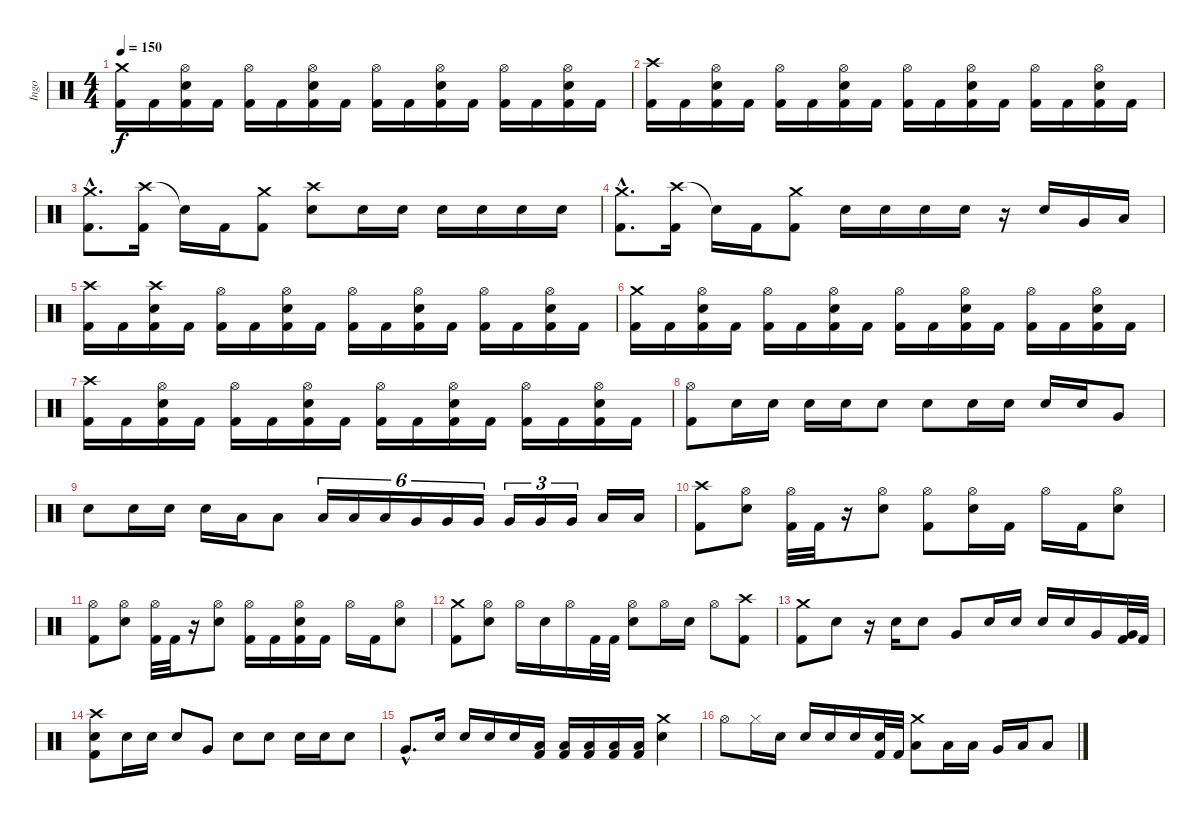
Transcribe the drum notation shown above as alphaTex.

\track ("Ingo" "Ingo") {instrument percussion}
\staff {score}
\articulation defaults
\ts (4 4)
\tempo 150
\clef neutral
\ks c
("Crash medium (hit)" "Kick (hit) 2").16{dy f} "Kick (hit) 2".16 ("Hi-Hat (open)" "Electric Snare (hit)" "Kick (hit) 2").16 "Kick (hit) 2".16 ("Hi-Hat (open)" "Kick (hit) 2").16 "Kick (hit) 2".16 ("Hi-Hat (open)" "Electric Snare (hit)" "Kick (hit) 2").16 "Kick (hit) 2".16 ("Hi-Hat (open)" "Kick (hit) 2").16 "Kick (hit) 2".16 ("Hi-Hat (open)" "Electric Snare (hit)" "Kick (hit) 2").16 "Kick (hit) 2".16 ("Hi-Hat (open)" "Kick (hit) 2").16 "Kick (hit) 2".16 ("Hi-Hat (open)" "Electric Snare (hit)" "Kick (hit) 2").16 "Kick (hit) 2".16 |
("Crash high (hit)" "Kick (hit) 2").16 "Kick (hit) 2".16 ("Hi-Hat (open)" "Electric Snare (hit)" "Kick (hit) 2").16 "Kick (hit) 2".16 ("Hi-Hat (open)" "Kick (hit) 2").16 "Kick (hit) 2".16 ("Hi-Hat (open)" "Electric Snare (hit)" "Kick (hit) 2").16 "Kick (hit) 2".16 ("Hi-Hat (open)" "Kick (hit) 2").16 "Kick (hit) 2".16 ("Hi-Hat (open)" "Electric Snare (hit)" "Kick (hit) 2").16 "Kick (hit) 2".16 ("Hi-Hat (open)" "Kick (hit) 2").16 "Kick (hit) 2".16 ("Hi-Hat (open)" "Electric Snare (hit)" "Kick (hit) 2").16 "Kick (hit) 2".16 |
("Crash medium (hit)"{hac} "Kick (hit) 2"{hac}).8{d} ("Crash high (hit)" "Kick (hit) 2").16 "Snare (hit)"{t}.16 "Kick (hit) 2".16 ("Crash medium (hit)" "Kick (hit) 2").8 ("Crash high (hit)" "Electric Snare (hit)").8 "Electric Snare (hit)".16 "Electric Snare (hit)".16 "Electric Snare (hit)".16 "Electric Snare (hit)".16 "Electric Snare (hit)".16 "Electric Snare (hit)".16 |
("Crash medium (hit)"{hac} "Kick (hit) 2"{hac}).8{d} ("Crash high (hit)" "Kick (hit) 2").16 "Snare (hit)"{t}.16 "Kick (hit) 2".16 ("Crash medium (hit)" "Kick (hit) 2").8 "Electric Snare (hit)".16 "Electric Snare (hit)".16 "Electric Snare (hit)".16 "Electric Snare (hit)".16 r.16 "Electric Snare (hit)".16 "Very Low Tom (hit)".16 "Low Floor Tom (hit)".16 |
("Crash high (hit)" "Kick (hit) 2").16 "Kick (hit) 2".16 ("Crash high (hit)" "Electric Snare (hit)" "Kick (hit) 2").16 "Kick (hit) 2".16 ("Hi-Hat (open)" "Kick (hit) 2").16 "Kick (hit) 2".16 ("Hi-Hat (open)" "Electric Snare (hit)" "Kick (hit) 2").16 "Kick (hit) 2".16 ("Hi-Hat (open)" "Kick (hit) 2").16 "Kick (hit) 2".16 ("Hi-Hat (open)" "Electric Snare (hit)" "Kick (hit) 2").16 "Kick (hit) 2".16 ("Hi-Hat (open)" "Kick (hit) 2").16 "Kick (hit) 2".16 ("Hi-Hat (open)" "Electric Snare (hit)" "Kick (hit) 2").16 "Kick (hit) 2".16 |
("Crash medium (hit)" "Kick (hit) 2").16 "Kick (hit) 2".16 ("Hi-Hat (open)" "Electric Snare (hit)" "Kick (hit) 2").16 "Kick (hit) 2".16 ("Hi-Hat (open)" "Kick (hit) 2").16 "Kick (hit) 2".16 ("Hi-Hat (open)" "Electric Snare (hit)" "Kick (hit) 2").16 "Kick (hit) 2".16 ("Hi-Hat (open)" "Kick (hit) 2").16 "Kick (hit) 2".16 ("Hi-Hat (open)" "Electric Snare (hit)" "Kick (hit) 2").16 "Kick (hit) 2".16 ("Hi-Hat (open)" "Kick (hit) 2").16 "Kick (hit) 2".16 ("Hi-Hat (open)" "Electric Snare (hit)" "Kick (hit) 2").16 "Kick (hit) 2".16 |
("Crash high (hit)" "Kick (hit) 2").16 "Kick (hit) 2".16 ("Hi-Hat (open)" "Electric Snare (hit)" "Kick (hit) 2").16 "Kick (hit) 2".16 ("Hi-Hat (open)" "Kick (hit) 2").16 "Kick (hit) 2".16 ("Hi-Hat (open)" "Electric Snare (hit)" "Kick (hit) 2").16 "Kick (hit) 2".16 ("Hi-Hat (open)" "Kick (hit) 2").16 "Kick (hit) 2".16 ("Hi-Hat (open)" "Electric Snare (hit)" "Kick (hit) 2").16 "Kick (hit) 2".16 ("Hi-Hat (open)" "Kick (hit) 2").16 "Kick (hit) 2".16 ("Hi-Hat (open)" "Electric Snare (hit)" "Kick (hit) 2").16 "Kick (hit) 2".16 |
("Hi-Hat (open)" "Kick (hit) 2").8 "Electric Snare (hit)".16 "Electric Snare (hit)".16 "Electric Snare (hit)".16 "Electric Snare (hit)".16 "Electric Snare (hit)".8 "Electric Snare (hit)".8 "Electric Snare (hit)".16 "Electric Snare (hit)".16 "Electric Snare (hit)".16 "Electric Snare (hit)".16 "Very Low Tom (hit)".8 |
"Electric Snare (hit)".8 "Electric Snare (hit)".16 "Electric Snare (hit)".16 "Electric Snare (hit)".16 "Low Tom (hit)".16 "Low Tom (hit)".8 "Low Tom (hit)".16{tu (6 4)} "Low Tom (hit)".16{tu (6 4)} "Low Tom (hit)".16{tu (6 4)} "Very Low Tom (hit)".16{tu (6 4)} "Very Low Tom (hit)".16{tu (6 4)} "Very Low Tom (hit)".16{tu (6 4)} "Very Low Tom (hit)".16{tu (3 2)} "Very Low Tom (hit)".16{tu (3 2)} "Very Low Tom (hit)".16{tu (3 2)} "Low Floor Tom (hit)".16 "Low Floor Tom (hit)".16 |
("Crash high (hit)" "Kick (hit) 2").8 ("Hi-Hat (open)" "Electric Snare (hit)").8 ("Hi-Hat (open)" "Kick (hit) 2").32 "Kick (hit) 2".32 r.16 ("Hi-Hat (open)" "Electric Snare (hit)").8 ("Hi-Hat (open)" "Kick (hit) 2").8 ("Hi-Hat (open)" "Electric Snare (hit)").16 "Kick (hit) 2".16 "Hi-Hat (open)".16 "Kick (hit) 2".16 ("Hi-Hat (open)" "Electric Snare (hit)").8 |
("Hi-Hat (open)" "Kick (hit) 2").8 ("Hi-Hat (open)" "Electric Snare (hit)").8 ("Hi-Hat (open)" "Kick (hit) 2").32 "Kick (hit) 2".32 r.16 ("Hi-Hat (open)" "Electric Snare (hit)").8 ("Hi-Hat (open)" "Kick (hit) 2").16 "Kick (hit) 2".16 ("Hi-Hat (open)" "Electric Snare (hit)" "Kick (hit) 2").16 "Kick (hit) 2".16 "Hi-Hat (open)".16 "Kick (hit) 2".16 ("Hi-Hat (open)" "Electric Snare (hit)").8 |
("Crash medium (hit)" "Kick (hit) 2").8 ("Hi-Hat (open)" "Electric Snare (hit)").8 "Hi-Hat (open)".16 "Electric Snare (hit)".16 "Hi-Hat (open)".16 "Kick (hit) 2".32 "Kick (hit) 2".32 ("Hi-Hat (open)" "Electric Snare (hit)").8 "Hi-Hat (open)".16 "Electric Snare (hit)".16 "Hi-Hat (open)".8 ("Crash high (hit)" "Kick (hit) 2").8 |
("Crash medium (hit)" "Kick (hit) 2").8 "Electric Snare (hit)".8 r.16 "Electric Snare (hit)".16 "Electric Snare (hit)".8 "Very Low Tom (hit)".8 "Electric Snare (hit)".16 "Electric Snare (hit)".16 "Electric Snare (hit)".16 "Electric Snare (hit)".16 "Very Low Tom (hit)".16 ("Very Low Tom (hit)" "Kick (hit) 2").32 "Kick (hit) 2".32 |
("Crash high (hit)" "Electric Snare (hit)" "Kick (hit) 2").8 "Electric Snare (hit)".16 "Electric Snare (hit)".16 "Electric Snare (hit)".8 "Very Low Tom (hit)".8 "Electric Snare (hit)".8 "Electric Snare (hit)".8 "Electric Snare (hit)".16 "Electric Snare (hit)".16 "Electric Snare (hit)".8 |
"Very Low Tom (hit)"{hac}.8{d} "Electric Snare (hit)".16 "Electric Snare (hit)".16 "Electric Snare (hit)".16 "Electric Snare (hit)".16 ("Low Floor Tom (hit)" "Kick (hit) 2").16 ("Low Floor Tom (hit)" "Kick (hit) 2").16 ("Low Floor Tom (hit)" "Kick (hit) 2").16 ("Low Floor Tom (hit)" "Kick (hit) 2").16 ("Low Floor Tom (hit)" "Kick (hit) 2").16 ("Crash medium (hit)" "Electric Snare (hit)").4 |
"Hi-Hat (open)".8 "Hi-Hat (closed)".16 "Electric Snare (hit)".16 "Electric Snare (hit)".16 "Electric Snare (hit)".16 "Electric Snare (hit)".16 ("Electric Snare (hit)" "Kick (hit) 2").32 "Kick (hit) 2".32 ("Crash medium (hit)" "Low Tom (hit)").8 "Low Tom (hit)".16 "Low Tom (hit)".16 "Very Low Tom (hit)".16 "Low Floor Tom (hit)".16 "Low Floor Tom (hit)".8
